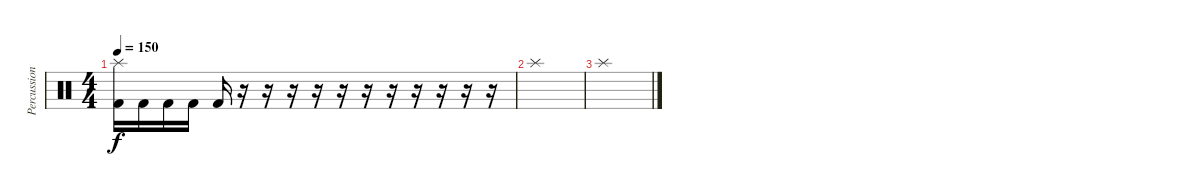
\track ("Percussion" "Percussion") {instrument percussion}
\staff {score}
\articulation defaults
\ts (4 4)
\tempo 150
\clef neutral
\ks c
("Splash (hit)" "Kick (hit) 2").16{dy f} "Kick (hit) 2".16 "Kick (hit) 2".16 "Kick (hit) 2".16 "Kick (hit) 2".16 r.16 r.16 r.16 r.16 r.16 r.16 r.16 r.16 r.16 r.16 r.16 |
"Splash (hit)".1 |
"Splash (hit)".1
